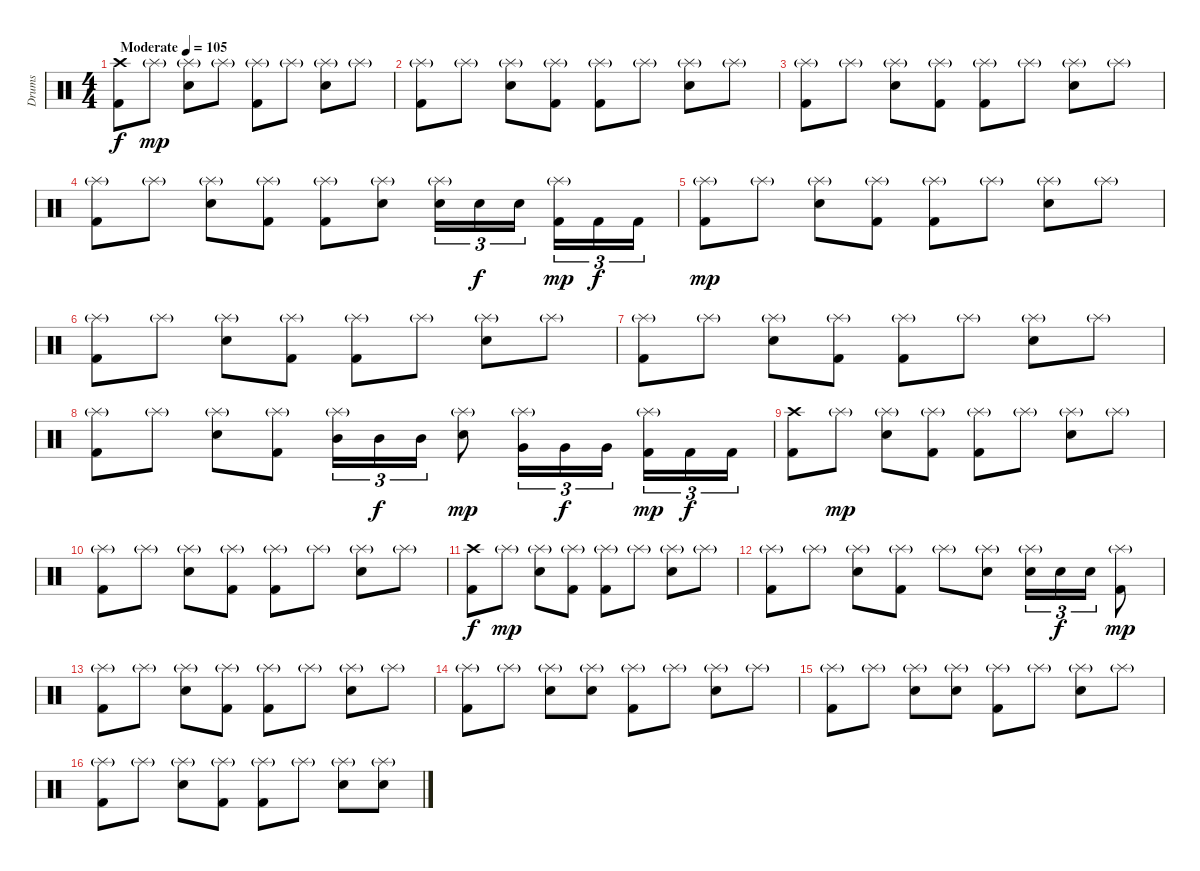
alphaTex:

\track ("Drums" "Drums") {instrument percussion}
\staff {score}
\articulation defaults
\ts (4 4)
\tempo (105 "Moderate")
\clef neutral
\ks c
("Crash high (hit)" "Kick (hit) 2").8{dy f} "Splash (hit)"{g}.8{dy mp} ("Splash (hit)"{g} "Snare (hit) 2").8 "Splash (hit)"{g}.8 ("Splash (hit)"{g} "Kick (hit) 2").8 "Splash (hit)"{g}.8 ("Splash (hit)"{g} "Snare (hit) 2").8 "Splash (hit)"{g}.8 |
("Splash (hit)"{g} "Kick (hit) 2").8 "Splash (hit)"{g}.8 ("Splash (hit)"{g} "Snare (hit) 2").8 ("Splash (hit)"{g} "Kick (hit) 2").8 ("Splash (hit)"{g} "Kick (hit) 2").8 "Splash (hit)"{g}.8 ("Splash (hit)"{g} "Snare (hit) 2").8 "Splash (hit)"{g}.8 |
("Splash (hit)"{g} "Kick (hit) 2").8 "Splash (hit)"{g}.8 ("Splash (hit)"{g} "Snare (hit) 2").8 ("Splash (hit)"{g} "Kick (hit) 2").8 ("Splash (hit)"{g} "Kick (hit) 2").8 "Splash (hit)"{g}.8 ("Splash (hit)"{g} "Snare (hit) 2").8 "Splash (hit)"{g}.8 |
("Splash (hit)"{g} "Kick (hit) 2").8 "Splash (hit)"{g}.8 ("Splash (hit)"{g} "Snare (hit) 2").8 ("Splash (hit)"{g} "Kick (hit) 2").8 ("Splash (hit)"{g} "Kick (hit) 2").8 ("Splash (hit)"{g} "Snare (hit) 2").8 ("Splash (hit)"{g} "Snare (hit) 2").16{tu (3 2)} "Snare (hit) 2".16{tu (3 2) dy f} "Snare (hit) 2".16{tu (3 2) beam splitsecondary} ("Splash (hit)"{g} "Kick (hit) 2").16{tu (3 2) dy mp} "Kick (hit) 2".16{tu (3 2) dy f} "Kick (hit) 2".16{tu (3 2)} |
("Splash (hit)"{g} "Kick (hit) 2").8{dy mp} "Splash (hit)"{g}.8 ("Splash (hit)"{g} "Snare (hit) 2").8 ("Splash (hit)"{g} "Kick (hit) 2").8 ("Splash (hit)"{g} "Kick (hit) 2").8 "Splash (hit)"{g}.8 ("Splash (hit)"{g} "Snare (hit) 2").8 "Splash (hit)"{g}.8 |
("Splash (hit)"{g} "Kick (hit) 2").8 "Splash (hit)"{g}.8 ("Splash (hit)"{g} "Snare (hit) 2").8 ("Splash (hit)"{g} "Kick (hit) 2").8 ("Splash (hit)"{g} "Kick (hit) 2").8 "Splash (hit)"{g}.8 ("Splash (hit)"{g} "Snare (hit) 2").8 "Splash (hit)"{g}.8 |
("Splash (hit)"{g} "Kick (hit) 2").8 "Splash (hit)"{g}.8 ("Splash (hit)"{g} "Snare (hit) 2").8 ("Splash (hit)"{g} "Kick (hit) 2").8 ("Splash (hit)"{g} "Kick (hit) 2").8 "Splash (hit)"{g}.8 ("Splash (hit)"{g} "Snare (hit) 2").8 "Splash (hit)"{g}.8 |
("Splash (hit)"{g} "Kick (hit) 2").8 "Splash (hit)"{g}.8 ("Splash (hit)"{g} "Snare (hit) 2").8 ("Splash (hit)"{g} "Kick (hit) 2").8 ("Splash (hit)"{g} "Mid Tom (hit)").16{tu (3 2)} "Mid Tom (hit)".16{tu (3 2) dy f} "Mid Tom (hit)".16{tu (3 2)} ("Splash (hit)"{g} "Snare (hit) 2").8{dy mp} ("Splash (hit)"{g} "Very Low Tom (hit)").16{tu (3 2)} "Very Low Tom (hit)".16{tu (3 2) dy f} "Very Low Tom (hit)".16{tu (3 2) beam splitsecondary} ("Splash (hit)"{g} "Kick (hit) 2").16{tu (3 2) dy mp} "Kick (hit) 2".16{tu (3 2) dy f} "Kick (hit) 2".16{tu (3 2)} |
("Crash high (hit)" "Kick (hit) 2").8 "Splash (hit)"{g}.8{dy mp} ("Splash (hit)"{g} "Snare (hit) 2").8 ("Splash (hit)"{g} "Kick (hit) 2").8 ("Splash (hit)"{g} "Kick (hit) 2").8 "Splash (hit)"{g}.8 ("Splash (hit)"{g} "Snare (hit) 2").8 "Splash (hit)"{g}.8 |
("Splash (hit)"{g} "Kick (hit) 2").8 "Splash (hit)"{g}.8 ("Splash (hit)"{g} "Snare (hit) 2").8 ("Splash (hit)"{g} "Kick (hit) 2").8 ("Splash (hit)"{g} "Kick (hit) 2").8 "Splash (hit)"{g}.8 ("Splash (hit)"{g} "Snare (hit) 2").8 "Splash (hit)"{g}.8 |
("Crash high (hit)" "Kick (hit) 2").8{dy f} "Splash (hit)"{g}.8{dy mp} ("Splash (hit)"{g} "Snare (hit) 2").8 ("Splash (hit)"{g} "Kick (hit) 2").8 ("Splash (hit)"{g} "Kick (hit) 2").8 "Splash (hit)"{g}.8 ("Splash (hit)"{g} "Snare (hit) 2").8 "Splash (hit)"{g}.8 |
("Splash (hit)"{g} "Kick (hit) 2").8 "Splash (hit)"{g}.8 ("Splash (hit)"{g} "Snare (hit) 2").8 ("Splash (hit)"{g} "Kick (hit) 2").8 "Splash (hit)"{g}.8 ("Splash (hit)"{g} "Snare (hit) 2").8 ("Splash (hit)"{g} "Snare (hit) 2").16{tu (3 2)} "Snare (hit) 2".16{tu (3 2) dy f} "Snare (hit) 2".16{tu (3 2)} ("Splash (hit)"{g} "Kick (hit) 2").8{dy mp} |
("Splash (hit)"{g} "Kick (hit) 2").8 "Splash (hit)"{g}.8 ("Splash (hit)"{g} "Snare (hit) 2").8 ("Splash (hit)"{g} "Kick (hit) 2").8 ("Splash (hit)"{g} "Kick (hit) 2").8 "Splash (hit)"{g}.8 ("Splash (hit)"{g} "Snare (hit) 2").8 "Splash (hit)"{g}.8 |
("Splash (hit)"{g} "Kick (hit) 2").8 "Splash (hit)"{g}.8 ("Splash (hit)"{g} "Snare (hit) 2").8 ("Splash (hit)"{g} "Snare (hit) 2").8 ("Splash (hit)"{g} "Kick (hit) 2").8 "Splash (hit)"{g}.8 ("Splash (hit)"{g} "Snare (hit) 2").8 "Splash (hit)"{g}.8 |
("Splash (hit)"{g} "Kick (hit) 2").8 "Splash (hit)"{g}.8 ("Splash (hit)"{g} "Snare (hit) 2").8 ("Splash (hit)"{g} "Snare (hit) 2").8 ("Splash (hit)"{g} "Kick (hit) 2").8 "Splash (hit)"{g}.8 ("Splash (hit)"{g} "Snare (hit) 2").8 "Splash (hit)"{g}.8 |
("Splash (hit)"{g} "Kick (hit) 2").8 "Splash (hit)"{g}.8 ("Splash (hit)"{g} "Snare (hit) 2").8 ("Splash (hit)"{g} "Kick (hit) 2").8 ("Splash (hit)"{g} "Kick (hit) 2").8 "Splash (hit)"{g}.8 ("Splash (hit)"{g} "Snare (hit) 2").8 ("Splash (hit)"{g} "Snare (hit) 2").8
